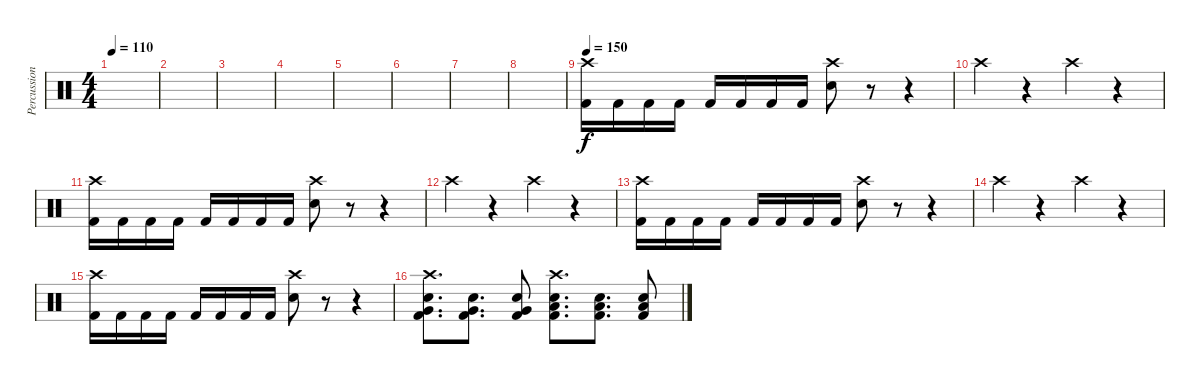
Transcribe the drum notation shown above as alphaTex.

\track ("Percussion" "Percussion") {instrument percussion}
\staff {score}
\articulation defaults
\ts (4 4)
\tempo 110
\clef neutral
\ks c
|
|
|
|
|
|
|
|
\tempo 150
("Crash high (hit)" "Kick (hit) 2").16 "Kick (hit) 2".16 "Kick (hit) 2".16 "Kick (hit) 2".16 "Kick (hit) 2".16 "Kick (hit) 2".16 "Kick (hit) 2".16 "Kick (hit) 2".16 ("Crash high (hit)" "Electric Snare (hit)").8 r.8 r.4 |
"Crash high (hit)".4 r.4 "Crash high (hit)".4 r.4 |
("Crash high (hit)" "Kick (hit) 2").16 "Kick (hit) 2".16 "Kick (hit) 2".16 "Kick (hit) 2".16 "Kick (hit) 2".16 "Kick (hit) 2".16 "Kick (hit) 2".16 "Kick (hit) 2".16 ("Crash high (hit)" "Electric Snare (hit)").8 r.8 r.4 |
"Crash high (hit)".4 r.4 "Crash high (hit)".4 r.4 |
("Crash high (hit)" "Kick (hit) 2").16 "Kick (hit) 2".16 "Kick (hit) 2".16 "Kick (hit) 2".16 "Kick (hit) 2".16 "Kick (hit) 2".16 "Kick (hit) 2".16 "Kick (hit) 2".16 ("Crash high (hit)" "Electric Snare (hit)").8 r.8 r.4 |
"Crash high (hit)".4 r.4 "Crash high (hit)".4 r.4 |
("Crash high (hit)" "Kick (hit) 2").16 "Kick (hit) 2".16 "Kick (hit) 2".16 "Kick (hit) 2".16 "Kick (hit) 2".16 "Kick (hit) 2".16 "Kick (hit) 2".16 "Kick (hit) 2".16 ("Crash high (hit)" "Electric Snare (hit)").8 r.8 r.4 |
("Crash high (hit)" "Electric Snare (hit)" "Very Low Tom (hit)" "Kick (hit) 2").8{d} ("Electric Snare (hit)" "Very Low Tom (hit)" "Kick (hit) 2").8{d} ("Electric Snare (hit)" "Very Low Tom (hit)" "Kick (hit) 2").8 ("Crash high (hit)" "Electric Snare (hit)" "Low Floor Tom (hit)" "Kick (hit) 2").8{d} ("Electric Snare (hit)" "Low Floor Tom (hit)" "Kick (hit) 2").8{d} ("Electric Snare (hit)" "Low Floor Tom (hit)" "Kick (hit) 2").8
